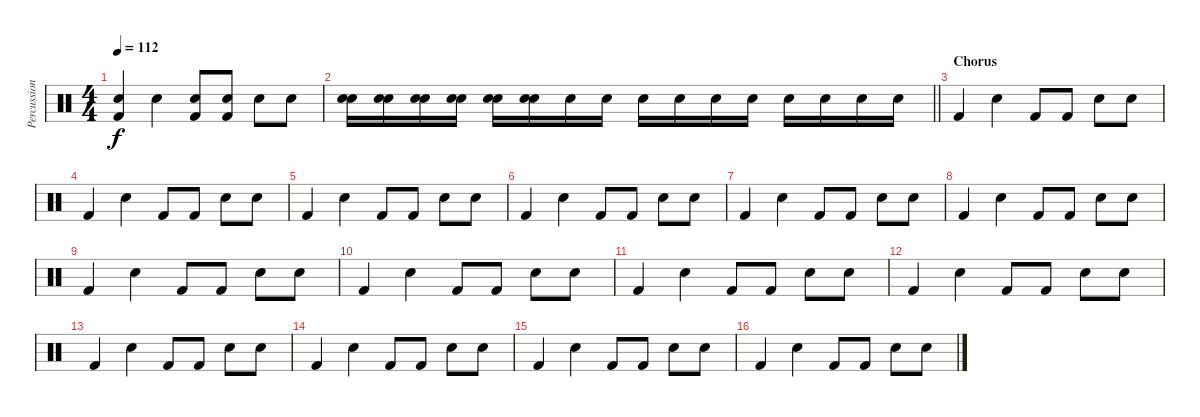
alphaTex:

\track ("Percussions" "Percussion") {instrument percussion}
\staff {score}
\articulation defaults
\ts (4 4)
\tempo 112
\clef neutral
\ks c
("Snare (hit)" "Kick (hit) 2").4{dy f} "Electric Snare (hit)".4 ("Snare (hit)" "Kick (hit) 2").8 ("Snare (hit)" "Kick (hit) 2").8 "Electric Snare (hit)".8 "Electric Snare (hit)".8 |
\barLineRight lightlight
("Snare (hit)" "Electric Snare (hit)").16 ("Electric Snare (hit)" "Electric Snare (hit)").16 ("Snare (hit)" "Electric Snare (hit)").16 ("Snare (hit)" "Electric Snare (hit)").16 ("Electric Snare (hit)" "Electric Snare (hit)").16 ("Electric Snare (hit)" "Electric Snare (hit)").16 "Electric Snare (hit)".16 "Electric Snare (hit)".16 "Electric Snare (hit)".16 "Electric Snare (hit)".16 "Electric Snare (hit)".16 "Electric Snare (hit)".16 "Electric Snare (hit)".16 "Electric Snare (hit)".16 "Electric Snare (hit)".16 "Electric Snare (hit)".16 |
\section ("" "Chorus")
"Kick (hit) 2".4 "Electric Snare (hit)".4 "Kick (hit) 2".8 "Kick (hit) 2".8 "Electric Snare (hit)".8 "Electric Snare (hit)".8 |
"Kick (hit) 2".4 "Electric Snare (hit)".4 "Kick (hit) 2".8 "Kick (hit) 2".8 "Electric Snare (hit)".8 "Electric Snare (hit)".8 |
"Kick (hit) 2".4 "Electric Snare (hit)".4 "Kick (hit) 2".8 "Kick (hit) 2".8 "Electric Snare (hit)".8 "Electric Snare (hit)".8 |
"Kick (hit) 2".4 "Electric Snare (hit)".4 "Kick (hit) 2".8 "Kick (hit) 2".8 "Electric Snare (hit)".8 "Electric Snare (hit)".8 |
"Kick (hit) 2".4 "Electric Snare (hit)".4 "Kick (hit) 2".8 "Kick (hit) 2".8 "Electric Snare (hit)".8 "Electric Snare (hit)".8 |
"Kick (hit) 2".4 "Electric Snare (hit)".4 "Kick (hit) 2".8 "Kick (hit) 2".8 "Electric Snare (hit)".8 "Electric Snare (hit)".8 |
"Kick (hit) 2".4 "Electric Snare (hit)".4 "Kick (hit) 2".8 "Kick (hit) 2".8 "Electric Snare (hit)".8 "Electric Snare (hit)".8 |
"Kick (hit) 2".4 "Electric Snare (hit)".4 "Kick (hit) 2".8 "Kick (hit) 2".8 "Electric Snare (hit)".8 "Electric Snare (hit)".8 |
"Kick (hit) 2".4 "Electric Snare (hit)".4 "Kick (hit) 2".8 "Kick (hit) 2".8 "Electric Snare (hit)".8 "Electric Snare (hit)".8 |
"Kick (hit) 2".4 "Electric Snare (hit)".4 "Kick (hit) 2".8 "Kick (hit) 2".8 "Electric Snare (hit)".8 "Electric Snare (hit)".8 |
"Kick (hit) 2".4 "Electric Snare (hit)".4 "Kick (hit) 2".8 "Kick (hit) 2".8 "Electric Snare (hit)".8 "Electric Snare (hit)".8 |
"Kick (hit) 2".4 "Electric Snare (hit)".4 "Kick (hit) 2".8 "Kick (hit) 2".8 "Electric Snare (hit)".8 "Electric Snare (hit)".8 |
"Kick (hit) 2".4 "Electric Snare (hit)".4 "Kick (hit) 2".8 "Kick (hit) 2".8 "Electric Snare (hit)".8 "Electric Snare (hit)".8 |
"Kick (hit) 2".4 "Electric Snare (hit)".4 "Kick (hit) 2".8 "Kick (hit) 2".8 "Electric Snare (hit)".8 "Electric Snare (hit)".8
